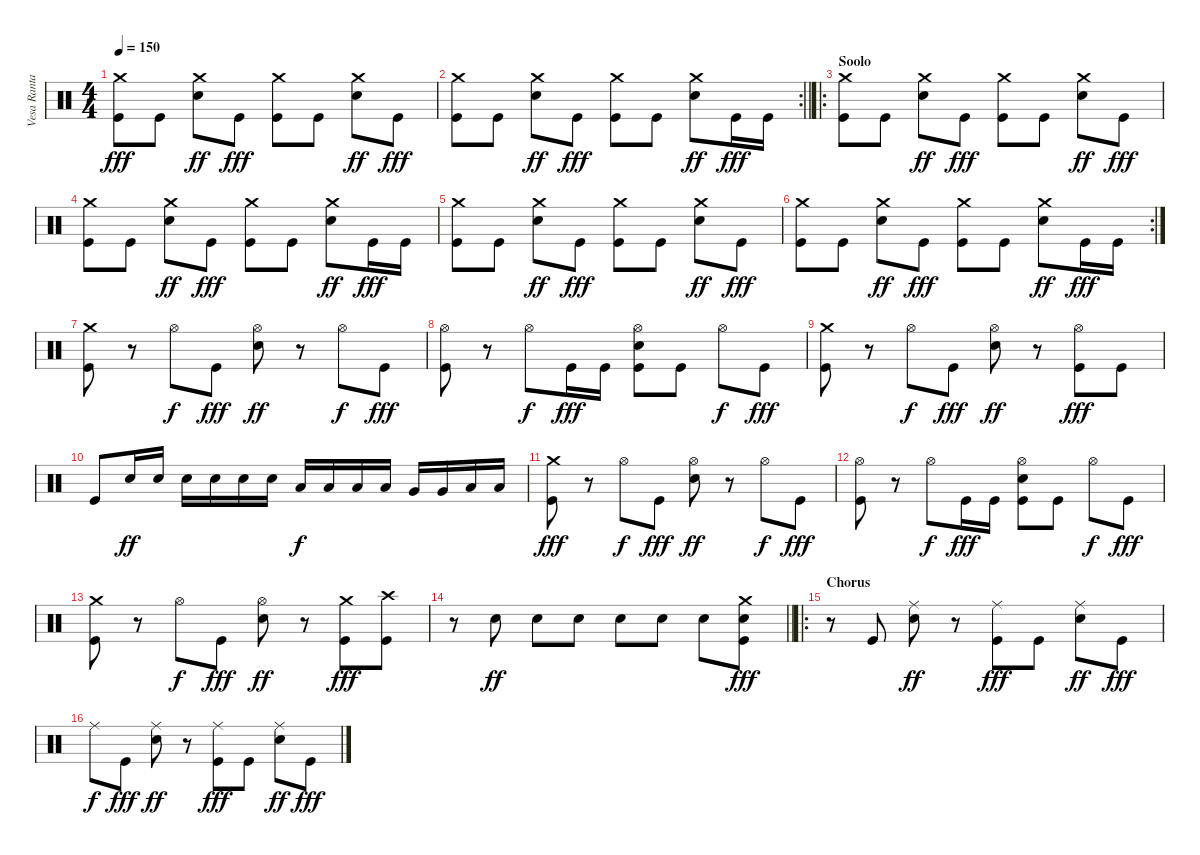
\track ("Vesa Ranta" "Vesa Ranta") {instrument percussion}
\staff {score}
\articulation defaults
\ts (4 4)
\tempo 150
\clef neutral
\ks c
("Crash medium (hit)" "Kick (hit)").8{dy fff} "Kick (hit)".8 ("Crash medium (hit)" "Snare (hit) 2").8{dy ff} "Kick (hit)".8{dy fff} ("Crash medium (hit)" "Kick (hit)").8 "Kick (hit)".8 ("Crash medium (hit)" "Snare (hit) 2").8{dy ff} "Kick (hit)".8{dy fff} |
\rc 2
\barLineRight lightlight
("Crash medium (hit)" "Kick (hit)").8 "Kick (hit)".8 ("Crash medium (hit)" "Snare (hit) 2").8{dy ff} "Kick (hit)".8{dy fff} ("Crash medium (hit)" "Kick (hit)").8 "Kick (hit)".8 ("Crash medium (hit)" "Snare (hit) 2").8{dy ff} "Kick (hit)".16{dy fff} "Kick (hit)".16 |
\ro
\section ("" "Soolo")
("Crash medium (hit)" "Kick (hit)").8 "Kick (hit)".8 ("Crash medium (hit)" "Snare (hit) 2").8{dy ff} "Kick (hit)".8{dy fff} ("Crash medium (hit)" "Kick (hit)").8 "Kick (hit)".8 ("Crash medium (hit)" "Snare (hit) 2").8{dy ff} "Kick (hit)".8{dy fff} |
("Crash medium (hit)" "Kick (hit)").8 "Kick (hit)".8 ("Crash medium (hit)" "Snare (hit) 2").8{dy ff} "Kick (hit)".8{dy fff} ("Crash medium (hit)" "Kick (hit)").8 "Kick (hit)".8 ("Crash medium (hit)" "Snare (hit) 2").8{dy ff} "Kick (hit)".16{dy fff} "Kick (hit)".16 |
("Crash medium (hit)" "Kick (hit)").8 "Kick (hit)".8 ("Crash medium (hit)" "Snare (hit) 2").8{dy ff} "Kick (hit)".8{dy fff} ("Crash medium (hit)" "Kick (hit)").8 "Kick (hit)".8 ("Crash medium (hit)" "Snare (hit) 2").8{dy ff} "Kick (hit)".8{dy fff} |
\rc 2
("Crash medium (hit)" "Kick (hit)").8 "Kick (hit)".8 ("Crash medium (hit)" "Snare (hit) 2").8{dy ff} "Kick (hit)".8{dy fff} ("Crash medium (hit)" "Kick (hit)").8 "Kick (hit)".8 ("Crash medium (hit)" "Snare (hit) 2").8{dy ff} "Kick (hit)".16{dy fff} "Kick (hit)".16 |
("Crash medium (hit)" "Kick (hit)").8 r.8 "Hi-Hat (open)".8{dy f} "Kick (hit)".8{dy fff} ("Hi-Hat (open)" "Snare (hit) 2").8{dy ff} r.8 "Hi-Hat (open)".8{dy f} "Kick (hit)".8{dy fff} |
("Hi-Hat (open)" "Kick (hit)").8 r.8 "Hi-Hat (open)".8{dy f} "Kick (hit)".16{dy fff} "Kick (hit)".16 ("Hi-Hat (open)" "Snare (hit) 2" "Kick (hit)").8 "Kick (hit)".8 "Hi-Hat (open)".8{dy f} "Kick (hit)".8{dy fff} |
("Crash medium (hit)" "Kick (hit)").8 r.8 "Hi-Hat (open)".8{dy f} "Kick (hit)".8{dy fff} ("Hi-Hat (open)" "Snare (hit) 2").8{dy ff} r.8 ("Hi-Hat (open)" "Kick (hit)").8{dy fff} "Kick (hit)".8 |
"Kick (hit)".8 "Snare (hit) 2".16{dy ff} "Snare (hit) 2".16 "Snare (hit) 2".16 "Snare (hit) 2".16 "Snare (hit) 2".16 "Snare (hit) 2".16 "Low Tom (hit)".16{dy f} "Low Tom (hit)".16 "Low Tom (hit)".16 "Low Tom (hit)".16 "Very Low Tom (hit)".16 "Very Low Tom (hit)".16 "Low Floor Tom (hit)".16 "Low Floor Tom (hit)".16 |
("Crash medium (hit)" "Kick (hit)").8{dy fff} r.8 "Hi-Hat (open)".8{dy f} "Kick (hit)".8{dy fff} ("Hi-Hat (open)" "Snare (hit) 2").8{dy ff} r.8 "Hi-Hat (open)".8{dy f} "Kick (hit)".8{dy fff} |
("Hi-Hat (open)" "Kick (hit)").8 r.8 "Hi-Hat (open)".8{dy f} "Kick (hit)".16{dy fff} "Kick (hit)".16 ("Hi-Hat (open)" "Snare (hit) 2" "Kick (hit)").8 "Kick (hit)".8 "Hi-Hat (open)".8{dy f} "Kick (hit)".8{dy fff} |
("Crash medium (hit)" "Kick (hit)").8 r.8 "Hi-Hat (open)".8{dy f} "Kick (hit)".8{dy fff} ("Hi-Hat (open)" "Snare (hit) 2").8{dy ff} r.8 ("Crash medium (hit)" "Kick (hit)").8{dy fff} ("Crash high (hit)" "Kick (hit)").8 |
\barLineRight lightlight
r.8 "Snare (hit) 2".8{dy ff} "Snare (hit) 2".8 "Snare (hit) 2".8 "Snare (hit) 2".8 "Snare (hit) 2".8 "Snare (hit) 2".8 ("Crash medium (hit)" "Snare (hit) 2" "Kick (hit)").8{dy fff} |
\ro
\section ("" "Chorus")
r.8 "Kick (hit)".8 ("Ride (middle)" "Snare (hit) 2").8{dy ff} r.8 ("Ride (middle)" "Kick (hit)").8{dy fff} "Kick (hit)".8 ("Ride (middle)" "Snare (hit) 2").8{dy ff} "Kick (hit)".8{dy fff} |
"Ride (middle)".8{dy f} "Kick (hit)".8{dy fff} ("Ride (middle)" "Snare (hit) 2").8{dy ff} r.8 ("Ride (middle)" "Kick (hit)").8{dy fff} "Kick (hit)".8 ("Ride (middle)" "Snare (hit) 2").8{dy ff} "Kick (hit)".8{dy fff}
